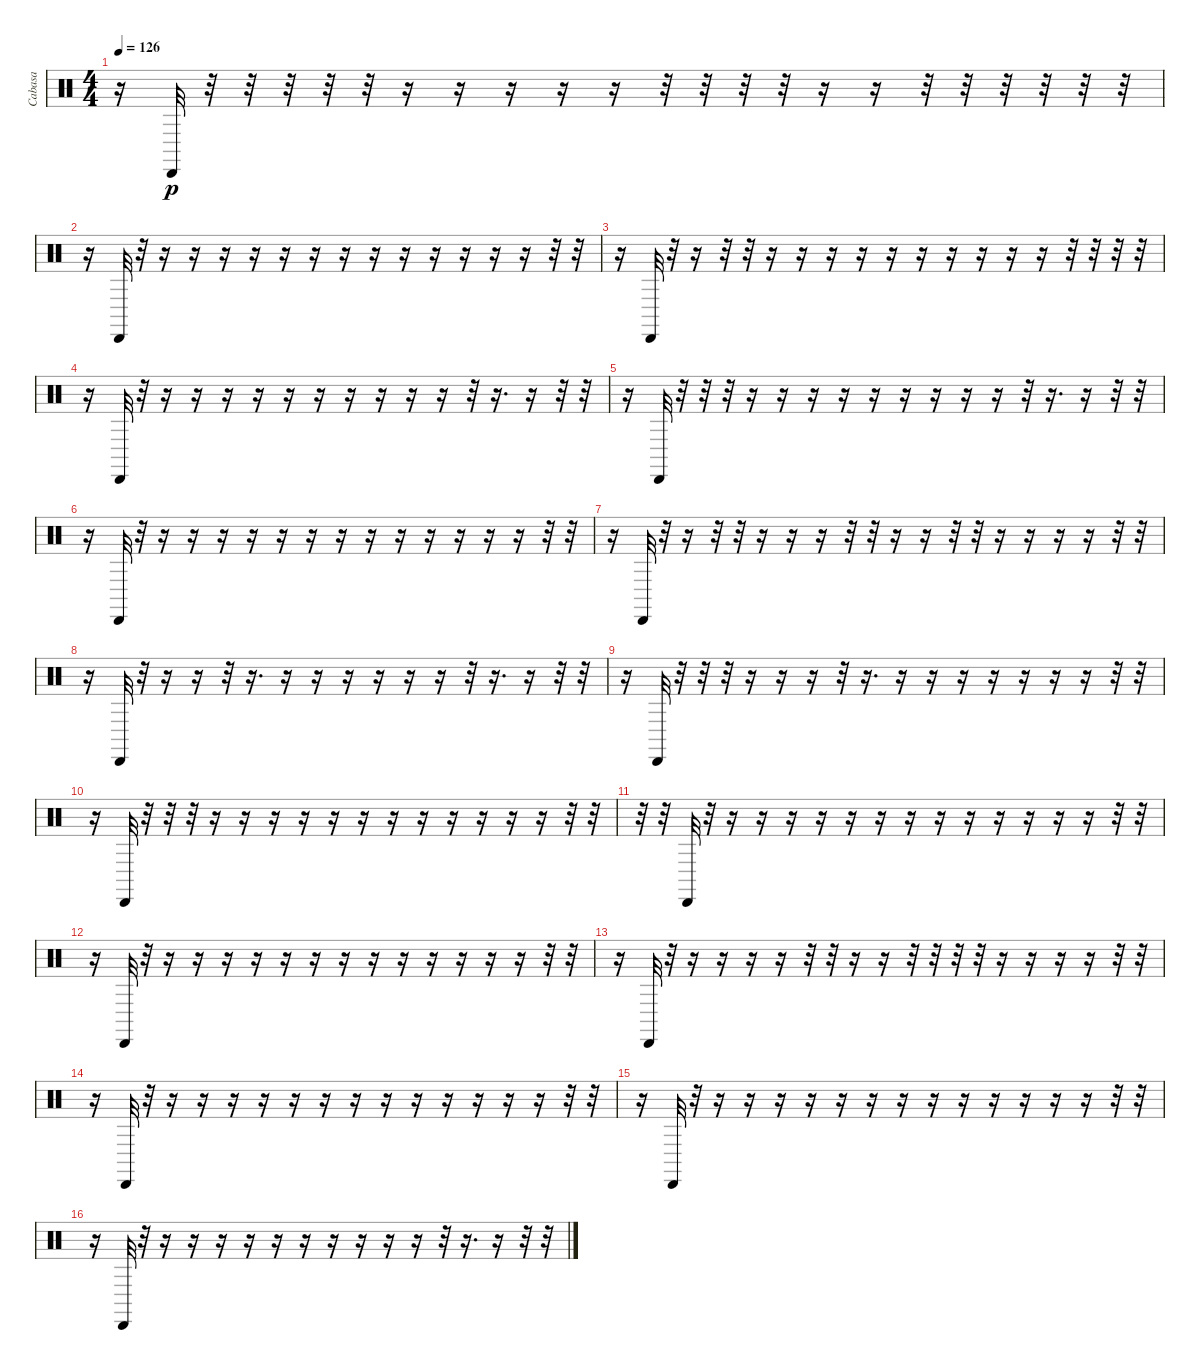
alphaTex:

\track ("Cabasa" "Cabasa") {instrument percussion}
\staff {score}
\articulation defaults
\ts (4 4)
\tempo 126
\clef neutral
\ks c
r.16{dy p} "Cabasa (hit)".32 r.32 r.32 r.32 r.32 r.32 r.16 r.16 r.16 r.16 r.16 r.32 r.32 r.32 r.32 r.16 r.16 r.32 r.32 r.32 r.32 r.32 r.32 |
r.16 "Cabasa (hit)".32 r.32 r.16 r.16 r.16 r.16 r.16 r.16 r.16 r.16 r.16 r.16 r.16 r.16 r.16 r.32 r.32 |
r.16 "Cabasa (hit)".32 r.32 r.16 r.32 r.32 r.16 r.16 r.16 r.16 r.16 r.16 r.16 r.16 r.16 r.16 r.32 r.32 r.32 r.32 |
r.16 "Cabasa (hit)".32 r.32 r.16 r.16 r.16 r.16 r.16 r.16 r.16 r.16 r.16 r.16 r.32 r.16{d} r.16 r.32 r.32 |
r.16 "Cabasa (hit)".32 r.32 r.32 r.32 r.16 r.16 r.16 r.16 r.16 r.16 r.16 r.16 r.16 r.32 r.16{d} r.16 r.32 r.32 |
r.16 "Cabasa (hit)".32 r.32 r.16 r.16 r.16 r.16 r.16 r.16 r.16 r.16 r.16 r.16 r.16 r.16 r.16 r.32 r.32 |
r.16 "Cabasa (hit)".32 r.32 r.16 r.32 r.32 r.16 r.16 r.16 r.32 r.32 r.16 r.16 r.32 r.32 r.16 r.16 r.16 r.16 r.32 r.32 |
r.16 "Cabasa (hit)".32 r.32 r.16 r.16 r.32 r.16{d} r.16 r.16 r.16 r.16 r.16 r.16 r.32 r.16{d} r.16 r.32 r.32 |
r.16 "Cabasa (hit)".32 r.32 r.32 r.32 r.16 r.16 r.16 r.32 r.16{d} r.16 r.16 r.16 r.16 r.16 r.16 r.16 r.32 r.32 |
r.16 "Cabasa (hit)".32 r.32 r.32 r.32 r.16 r.16 r.16 r.16 r.16 r.16 r.16 r.16 r.16 r.16 r.16 r.16 r.32 r.32 |
r.32 r.32 "Cabasa (hit)".32 r.32 r.16 r.16 r.16 r.16 r.16 r.16 r.16 r.16 r.16 r.16 r.16 r.16 r.16 r.32 r.32 |
r.16 "Cabasa (hit)".32 r.32 r.16 r.16 r.16 r.16 r.16 r.16 r.16 r.16 r.16 r.16 r.16 r.16 r.16 r.32 r.32 |
r.16 "Cabasa (hit)".32 r.32 r.16 r.16 r.16 r.16 r.32 r.32 r.16 r.16 r.32 r.32 r.32 r.32 r.16 r.16 r.16 r.16 r.32 r.32 |
r.16 "Cabasa (hit)".32 r.32 r.16 r.16 r.16 r.16 r.16 r.16 r.16 r.16 r.16 r.16 r.16 r.16 r.16 r.32 r.32 |
r.16 "Cabasa (hit)".32 r.32 r.16 r.16 r.16 r.16 r.16 r.16 r.16 r.16 r.16 r.16 r.16 r.16 r.16 r.32 r.32 |
r.16 "Cabasa (hit)".32 r.32 r.16 r.16 r.16 r.16 r.16 r.16 r.16 r.16 r.16 r.16 r.32 r.16{d} r.16 r.32 r.32
